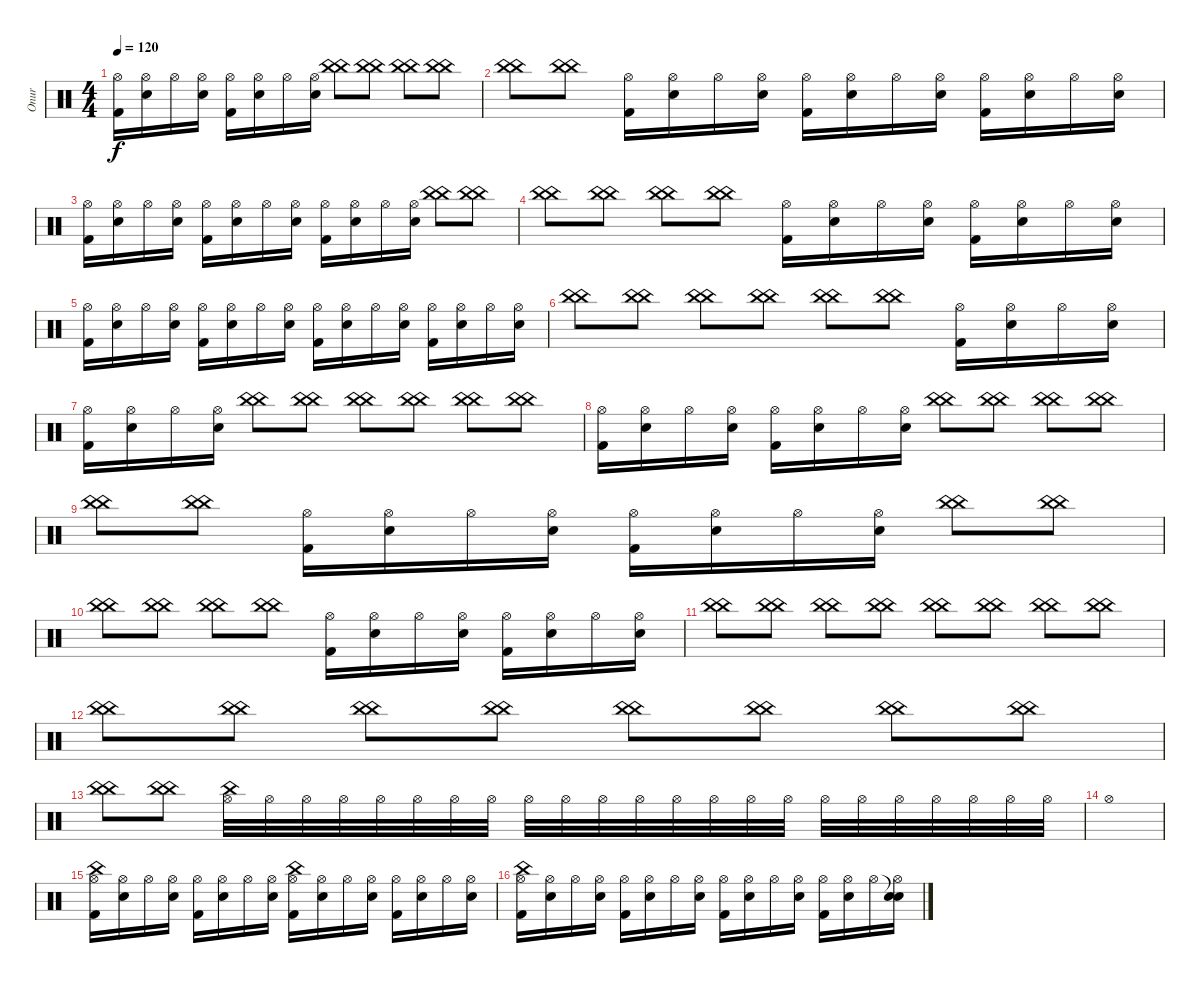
\track ("Onur" "Onur") {instrument percussion}
\staff {score}
\articulation defaults
\ts (4 4)
\tempo 120
\clef neutral
\ks c
("Hi-Hat (open)" "Kick (hit) 2").16{dy f} ("Hi-Hat (open)" "Snare (hit) 2").16 "Hi-Hat (open)".16 ("Hi-Hat (open)" "Snare (hit) 2").16 ("Hi-Hat (open)" "Kick (hit) 2").16 ("Hi-Hat (open)" "Snare (hit) 2").16 "Hi-Hat (open)".16 ("Hi-Hat (open)" "Snare (hit) 2").16 ("China (hit)" "China (hit)").8 ("China (hit)" "China (hit)").8 ("China (hit)" "China (hit)").8 ("China (hit)" "China (hit)").8 |
("China (hit)" "China (hit)").8 ("China (hit)" "China (hit)").8 ("Hi-Hat (open)" "Kick (hit) 2").16 ("Hi-Hat (open)" "Snare (hit) 2").16 "Hi-Hat (open)".16 ("Hi-Hat (open)" "Snare (hit) 2").16 ("Hi-Hat (open)" "Kick (hit) 2").16 ("Hi-Hat (open)" "Snare (hit) 2").16 "Hi-Hat (open)".16 ("Hi-Hat (open)" "Snare (hit) 2").16 ("Hi-Hat (open)" "Kick (hit) 2").16 ("Hi-Hat (open)" "Snare (hit) 2").16 "Hi-Hat (open)".16 ("Hi-Hat (open)" "Snare (hit) 2").16 |
("Hi-Hat (open)" "Kick (hit) 2").16 ("Hi-Hat (open)" "Snare (hit) 2").16 "Hi-Hat (open)".16 ("Hi-Hat (open)" "Snare (hit) 2").16 ("Hi-Hat (open)" "Kick (hit) 2").16 ("Hi-Hat (open)" "Snare (hit) 2").16 "Hi-Hat (open)".16 ("Hi-Hat (open)" "Snare (hit) 2").16 ("Hi-Hat (open)" "Kick (hit) 2").16 ("Hi-Hat (open)" "Snare (hit) 2").16 "Hi-Hat (open)".16 ("Hi-Hat (open)" "Snare (hit) 2").16 ("China (hit)" "China (hit)").8 ("China (hit)" "China (hit)").8 |
("China (hit)" "China (hit)").8 ("China (hit)" "China (hit)").8 ("China (hit)" "China (hit)").8 ("China (hit)" "China (hit)").8 ("Hi-Hat (open)" "Kick (hit) 2").16 ("Hi-Hat (open)" "Snare (hit) 2").16 "Hi-Hat (open)".16 ("Hi-Hat (open)" "Snare (hit) 2").16 ("Hi-Hat (open)" "Kick (hit) 2").16 ("Hi-Hat (open)" "Snare (hit) 2").16 "Hi-Hat (open)".16 ("Hi-Hat (open)" "Snare (hit) 2").16 |
("Hi-Hat (open)" "Kick (hit) 2").16 ("Hi-Hat (open)" "Snare (hit) 2").16 "Hi-Hat (open)".16 ("Hi-Hat (open)" "Snare (hit) 2").16 ("Hi-Hat (open)" "Kick (hit) 2").16 ("Hi-Hat (open)" "Snare (hit) 2").16 "Hi-Hat (open)".16 ("Hi-Hat (open)" "Snare (hit) 2").16 ("Hi-Hat (open)" "Kick (hit) 2").16 ("Hi-Hat (open)" "Snare (hit) 2").16 "Hi-Hat (open)".16 ("Hi-Hat (open)" "Snare (hit) 2").16 ("Hi-Hat (open)" "Kick (hit) 2").16 ("Hi-Hat (open)" "Snare (hit) 2").16 "Hi-Hat (open)".16 ("Hi-Hat (open)" "Snare (hit) 2").16 |
("China (hit)" "China (hit)").8 ("China (hit)" "China (hit)").8 ("China (hit)" "China (hit)").8 ("China (hit)" "China (hit)").8 ("China (hit)" "China (hit)").8 ("China (hit)" "China (hit)").8 ("Hi-Hat (open)" "Kick (hit) 2").16 ("Hi-Hat (open)" "Snare (hit) 2").16 "Hi-Hat (open)".16 ("Hi-Hat (open)" "Snare (hit) 2").16 |
("Hi-Hat (open)" "Kick (hit) 2").16 ("Hi-Hat (open)" "Snare (hit) 2").16 "Hi-Hat (open)".16 ("Hi-Hat (open)" "Snare (hit) 2").16 ("China (hit)" "China (hit)").8 ("China (hit)" "China (hit)").8 ("China (hit)" "China (hit)").8 ("China (hit)" "China (hit)").8 ("China (hit)" "China (hit)").8 ("China (hit)" "China (hit)").8 |
("Hi-Hat (open)" "Kick (hit) 2").16 ("Hi-Hat (open)" "Snare (hit) 2").16 "Hi-Hat (open)".16 ("Hi-Hat (open)" "Snare (hit) 2").16 ("Hi-Hat (open)" "Kick (hit) 2").16 ("Hi-Hat (open)" "Snare (hit) 2").16 "Hi-Hat (open)".16 ("Hi-Hat (open)" "Snare (hit) 2").16 ("China (hit)" "China (hit)").8 ("China (hit)" "China (hit)").8 ("China (hit)" "China (hit)").8 ("China (hit)" "China (hit)").8 |
("China (hit)" "China (hit)").8 ("China (hit)" "China (hit)").8 ("Hi-Hat (open)" "Kick (hit) 2").16 ("Hi-Hat (open)" "Snare (hit) 2").16 "Hi-Hat (open)".16 ("Hi-Hat (open)" "Snare (hit) 2").16 ("Hi-Hat (open)" "Kick (hit) 2").16 ("Hi-Hat (open)" "Snare (hit) 2").16 "Hi-Hat (open)".16 ("Hi-Hat (open)" "Snare (hit) 2").16 ("China (hit)" "China (hit)").8 ("China (hit)" "China (hit)").8 |
("China (hit)" "China (hit)").8 ("China (hit)" "China (hit)").8 ("China (hit)" "China (hit)").8 ("China (hit)" "China (hit)").8 ("Hi-Hat (open)" "Kick (hit) 2").16 ("Hi-Hat (open)" "Snare (hit) 2").16 "Hi-Hat (open)".16 ("Hi-Hat (open)" "Snare (hit) 2").16 ("Hi-Hat (open)" "Kick (hit) 2").16 ("Hi-Hat (open)" "Snare (hit) 2").16 "Hi-Hat (open)".16 ("Hi-Hat (open)" "Snare (hit) 2").16 |
("China (hit)" "China (hit)").8 ("China (hit)" "China (hit)").8 ("China (hit)" "China (hit)").8 ("China (hit)" "China (hit)").8 ("China (hit)" "China (hit)").8 ("China (hit)" "China (hit)").8 ("China (hit)" "China (hit)").8 ("China (hit)" "China (hit)").8 |
("China (hit)" "China (hit)").8 ("China (hit)" "China (hit)").8 ("China (hit)" "China (hit)").8 ("China (hit)" "China (hit)").8 ("China (hit)" "China (hit)").8 ("China (hit)" "China (hit)").8 ("China (hit)" "China (hit)").8 ("China (hit)" "China (hit)").8 |
("China (hit)" "China (hit)").8 ("China (hit)" "China (hit)").8 ("China (hit)" "Hi-Hat (open)").32 "Hi-Hat (open)".32 "Hi-Hat (open)".32 "Hi-Hat (open)".32 "Hi-Hat (open)".32 "Hi-Hat (open)".32 "Hi-Hat (open)".32 "Hi-Hat (open)".32 "Hi-Hat (open)".32 "Hi-Hat (open)".32 "Hi-Hat (open)".32 "Hi-Hat (open)".32 "Hi-Hat (open)".32 "Hi-Hat (open)".32 "Hi-Hat (open)".32 "Hi-Hat (open)".32 "Hi-Hat (open)".32 "Hi-Hat (open)".32 "Hi-Hat (open)".32 "Hi-Hat (open)".32 "Hi-Hat (open)".32 "Hi-Hat (open)".32 "Hi-Hat (open)".32 |
"Hi-Hat (open)".1 |
("China (hit)" "Hi-Hat (open)" "Kick (hit) 2").16 ("Hi-Hat (open)" "Snare (hit) 2").16 "Hi-Hat (open)".16 ("Hi-Hat (open)" "Snare (hit) 2").16 ("Hi-Hat (open)" "Kick (hit) 2").16 ("Hi-Hat (open)" "Snare (hit) 2").16 "Hi-Hat (open)".16 ("Hi-Hat (open)" "Snare (hit) 2").16 ("China (hit)" "Hi-Hat (open)" "Kick (hit) 2").16 ("Hi-Hat (open)" "Snare (hit) 2").16 "Hi-Hat (open)".16 ("Hi-Hat (open)" "Snare (hit) 2").16 ("Hi-Hat (open)" "Kick (hit) 2").16 ("Hi-Hat (open)" "Snare (hit) 2").16 "Hi-Hat (open)".16 ("Hi-Hat (open)" "Snare (hit) 2").16 |
("China (hit)" "Hi-Hat (open)" "Kick (hit) 2").16 ("Hi-Hat (open)" "Snare (hit) 2").16 "Hi-Hat (open)".16 ("Hi-Hat (open)" "Snare (hit) 2").16 ("Hi-Hat (open)" "Kick (hit) 2").16 ("Hi-Hat (open)" "Snare (hit) 2").16 "Hi-Hat (open)".16 ("Hi-Hat (open)" "Snare (hit) 2").16 ("Hi-Hat (open)" "Kick (hit) 2").16 ("Hi-Hat (open)" "Snare (hit) 2").16 "Hi-Hat (open)".16 ("Hi-Hat (open)" "Snare (hit) 2").16 ("Hi-Hat (open)" "Kick (hit) 2").16 ("Hi-Hat (open)" "Snare (hit) 2").16 "Hi-Hat (open)".16 ("Snare (hit)"{t} "Hi-Hat (open)" "Snare (hit) 2").16
